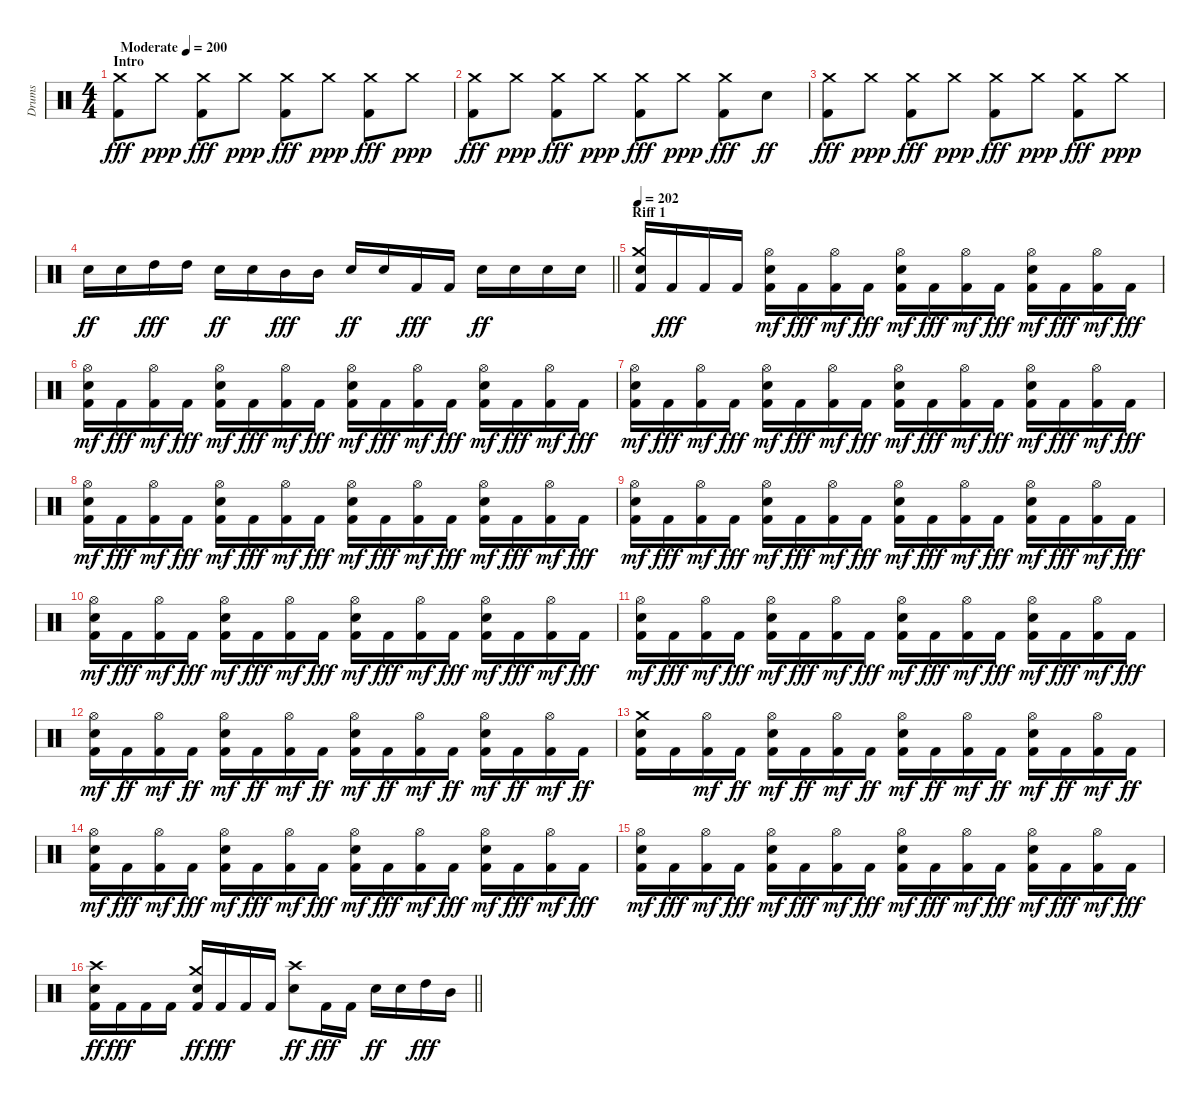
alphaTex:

\track ("Drums" "Drums") {instrument percussion}
\staff {score}
\articulation defaults
\ts (4 4)
\section ("" "Intro")
\tempo (200 "Moderate")
\clef neutral
\ks c
("Kick (hit) 2" "Crash medium (hit)").8{dy fff} "Crash medium (hit)".8{dy ppp} ("Kick (hit) 2" "Crash medium (hit)").8{dy fff} "Crash medium (hit)".8{dy ppp} ("Kick (hit) 2" "Crash medium (hit)").8{dy fff} "Crash medium (hit)".8{dy ppp} ("Kick (hit) 2" "Crash medium (hit)").8{dy fff} "Crash medium (hit)".8{dy ppp} |
("Kick (hit) 2" "Crash medium (hit)").8{dy fff} "Crash medium (hit)".8{dy ppp} ("Kick (hit) 2" "Crash medium (hit)").8{dy fff} "Crash medium (hit)".8{dy ppp} ("Kick (hit) 2" "Crash medium (hit)").8{dy fff} "Crash medium (hit)".8{dy ppp} ("Kick (hit) 2" "Crash medium (hit)").8{dy fff} "Snare (hit) 2".8{dy ff} |
("Kick (hit) 2" "Crash medium (hit)").8{dy fff} "Crash medium (hit)".8{dy ppp} ("Kick (hit) 2" "Crash medium (hit)").8{dy fff} "Crash medium (hit)".8{dy ppp} ("Kick (hit) 2" "Crash medium (hit)").8{dy fff} "Crash medium (hit)".8{dy ppp} ("Kick (hit) 2" "Crash medium (hit)").8{dy fff} "Crash medium (hit)".8{dy ppp} |
\barLineRight lightlight "Snare (hit) 2".16{dy ff} "Snare (hit) 2".16 "High Tom (hit)".16{dy fff} "High Tom (hit)".16 "Snare (hit) 2".16{dy ff} "Snare (hit) 2".16 "Mid Tom (hit)".16{dy fff} "Mid Tom (hit)".16 "Snare (hit) 2".16{dy ff} "Snare (hit) 2".16 "Kick (hit) 2".16{dy fff} "Kick (hit) 2".16 "Snare (hit) 2".16{dy ff} "Snare (hit) 2".16 "Snare (hit) 2".16 "Snare (hit) 2".16
|
\section ("" "Riff 1")
\tempo 202
("Kick (hit) 2" "Snare (hit) 2" "Crash medium (hit)").16 "Kick (hit) 2".16{dy fff} "Kick (hit) 2".16 "Kick (hit) 2".16 ("Kick (hit) 2" "Snare (hit) 2" "Hi-Hat (open)").16{dy mf} "Kick (hit) 2".16{dy fff} ("Kick (hit) 2" "Hi-Hat (open)").16{dy mf} "Kick (hit) 2".16{dy fff} ("Kick (hit) 2" "Snare (hit) 2" "Hi-Hat (open)").16{dy mf} "Kick (hit) 2".16{dy fff} ("Kick (hit) 2" "Hi-Hat (open)").16{dy mf} "Kick (hit) 2".16{dy fff} ("Kick (hit) 2" "Snare (hit) 2" "Hi-Hat (open)").16{dy mf} "Kick (hit) 2".16{dy fff} ("Kick (hit) 2" "Hi-Hat (open)").16{dy mf} "Kick (hit) 2".16{dy fff} |
("Kick (hit) 2" "Snare (hit) 2" "Hi-Hat (open)").16{dy mf} "Kick (hit) 2".16{dy fff} ("Kick (hit) 2" "Hi-Hat (open)").16{dy mf} "Kick (hit) 2".16{dy fff} ("Kick (hit) 2" "Snare (hit) 2" "Hi-Hat (open)").16{dy mf} "Kick (hit) 2".16{dy fff} ("Kick (hit) 2" "Hi-Hat (open)").16{dy mf} "Kick (hit) 2".16{dy fff} ("Kick (hit) 2" "Snare (hit) 2" "Hi-Hat (open)").16{dy mf} "Kick (hit) 2".16{dy fff} ("Kick (hit) 2" "Hi-Hat (open)").16{dy mf} "Kick (hit) 2".16{dy fff} ("Kick (hit) 2" "Snare (hit) 2" "Hi-Hat (open)").16{dy mf} "Kick (hit) 2".16{dy fff} ("Kick (hit) 2" "Hi-Hat (open)").16{dy mf} "Kick (hit) 2".16{dy fff} |
("Kick (hit) 2" "Snare (hit) 2" "Hi-Hat (open)").16{dy mf} "Kick (hit) 2".16{dy fff} ("Kick (hit) 2" "Hi-Hat (open)").16{dy mf} "Kick (hit) 2".16{dy fff} ("Kick (hit) 2" "Snare (hit) 2" "Hi-Hat (open)").16{dy mf} "Kick (hit) 2".16{dy fff} ("Kick (hit) 2" "Hi-Hat (open)").16{dy mf} "Kick (hit) 2".16{dy fff} ("Kick (hit) 2" "Snare (hit) 2" "Hi-Hat (open)").16{dy mf} "Kick (hit) 2".16{dy fff} ("Kick (hit) 2" "Hi-Hat (open)").16{dy mf} "Kick (hit) 2".16{dy fff} ("Kick (hit) 2" "Snare (hit) 2" "Hi-Hat (open)").16{dy mf} "Kick (hit) 2".16{dy fff} ("Kick (hit) 2" "Hi-Hat (open)").16{dy mf} "Kick (hit) 2".16{dy fff} |
("Kick (hit) 2" "Snare (hit) 2" "Hi-Hat (open)").16{dy mf} "Kick (hit) 2".16{dy fff} ("Kick (hit) 2" "Hi-Hat (open)").16{dy mf} "Kick (hit) 2".16{dy fff} ("Kick (hit) 2" "Snare (hit) 2" "Hi-Hat (open)").16{dy mf} "Kick (hit) 2".16{dy fff} ("Kick (hit) 2" "Hi-Hat (open)").16{dy mf} "Kick (hit) 2".16{dy fff} ("Kick (hit) 2" "Snare (hit) 2" "Hi-Hat (open)").16{dy mf} "Kick (hit) 2".16{dy fff} ("Kick (hit) 2" "Hi-Hat (open)").16{dy mf} "Kick (hit) 2".16{dy fff} ("Kick (hit) 2" "Snare (hit) 2" "Hi-Hat (open)").16{dy mf} "Kick (hit) 2".16{dy fff} ("Kick (hit) 2" "Hi-Hat (open)").16{dy mf} "Kick (hit) 2".16{dy fff} |
("Kick (hit) 2" "Snare (hit) 2" "Hi-Hat (open)").16{dy mf} "Kick (hit) 2".16{dy fff} ("Kick (hit) 2" "Hi-Hat (open)").16{dy mf} "Kick (hit) 2".16{dy fff} ("Kick (hit) 2" "Snare (hit) 2" "Hi-Hat (open)").16{dy mf} "Kick (hit) 2".16{dy fff} ("Kick (hit) 2" "Hi-Hat (open)").16{dy mf} "Kick (hit) 2".16{dy fff} ("Kick (hit) 2" "Snare (hit) 2" "Hi-Hat (open)").16{dy mf} "Kick (hit) 2".16{dy fff} ("Kick (hit) 2" "Hi-Hat (open)").16{dy mf} "Kick (hit) 2".16{dy fff} ("Kick (hit) 2" "Snare (hit) 2" "Hi-Hat (open)").16{dy mf} "Kick (hit) 2".16{dy fff} ("Kick (hit) 2" "Hi-Hat (open)").16{dy mf} "Kick (hit) 2".16{dy fff} |
("Kick (hit) 2" "Snare (hit) 2" "Hi-Hat (open)").16{dy mf} "Kick (hit) 2".16{dy fff} ("Kick (hit) 2" "Hi-Hat (open)").16{dy mf} "Kick (hit) 2".16{dy fff} ("Kick (hit) 2" "Snare (hit) 2" "Hi-Hat (open)").16{dy mf} "Kick (hit) 2".16{dy fff} ("Kick (hit) 2" "Hi-Hat (open)").16{dy mf} "Kick (hit) 2".16{dy fff} ("Kick (hit) 2" "Snare (hit) 2" "Hi-Hat (open)").16{dy mf} "Kick (hit) 2".16{dy fff} ("Kick (hit) 2" "Hi-Hat (open)").16{dy mf} "Kick (hit) 2".16{dy fff} ("Kick (hit) 2" "Snare (hit) 2" "Hi-Hat (open)").16{dy mf} "Kick (hit) 2".16{dy fff} ("Kick (hit) 2" "Hi-Hat (open)").16{dy mf} "Kick (hit) 2".16{dy fff} |
("Kick (hit) 2" "Snare (hit) 2" "Hi-Hat (open)").16{dy mf} "Kick (hit) 2".16{dy fff} ("Kick (hit) 2" "Hi-Hat (open)").16{dy mf} "Kick (hit) 2".16{dy fff} ("Kick (hit) 2" "Snare (hit) 2" "Hi-Hat (open)").16{dy mf} "Kick (hit) 2".16{dy fff} ("Kick (hit) 2" "Hi-Hat (open)").16{dy mf} "Kick (hit) 2".16{dy fff} ("Kick (hit) 2" "Snare (hit) 2" "Hi-Hat (open)").16{dy mf} "Kick (hit) 2".16{dy fff} ("Kick (hit) 2" "Hi-Hat (open)").16{dy mf} "Kick (hit) 2".16{dy fff} ("Kick (hit) 2" "Snare (hit) 2" "Hi-Hat (open)").16{dy mf} "Kick (hit) 2".16{dy fff} ("Kick (hit) 2" "Hi-Hat (open)").16{dy mf} "Kick (hit) 2".16{dy fff} |
("Kick (hit) 2" "Snare (hit) 2" "Hi-Hat (open)").16{dy mf} "Kick (hit) 2".16{dy ff} ("Kick (hit) 2" "Hi-Hat (open)").16{dy mf} "Kick (hit) 2".16{dy ff} ("Kick (hit) 2" "Snare (hit) 2" "Hi-Hat (open)").16{dy mf} "Kick (hit) 2".16{dy ff} ("Kick (hit) 2" "Hi-Hat (open)").16{dy mf} "Kick (hit) 2".16{dy ff} ("Kick (hit) 2" "Snare (hit) 2" "Hi-Hat (open)").16{dy mf} "Kick (hit) 2".16{dy ff} ("Kick (hit) 2" "Hi-Hat (open)").16{dy mf} "Kick (hit) 2".16{dy ff} ("Kick (hit) 2" "Snare (hit) 2" "Hi-Hat (open)").16{dy mf} "Kick (hit) 2".16{dy ff} ("Kick (hit) 2" "Hi-Hat (open)").16{dy mf} "Kick (hit) 2".16{dy ff} |
("Kick (hit) 2" "Snare (hit) 2" "Crash medium (hit)").16 "Kick (hit) 2".16 ("Kick (hit) 2" "Hi-Hat (open)").16{dy mf} "Kick (hit) 2".16{dy ff} ("Kick (hit) 2" "Snare (hit) 2" "Hi-Hat (open)").16{dy mf} "Kick (hit) 2".16{dy ff} ("Kick (hit) 2" "Hi-Hat (open)").16{dy mf} "Kick (hit) 2".16{dy ff} ("Kick (hit) 2" "Snare (hit) 2" "Hi-Hat (open)").16{dy mf} "Kick (hit) 2".16{dy ff} ("Kick (hit) 2" "Hi-Hat (open)").16{dy mf} "Kick (hit) 2".16{dy ff} ("Kick (hit) 2" "Snare (hit) 2" "Hi-Hat (open)").16{dy mf} "Kick (hit) 2".16{dy ff} ("Kick (hit) 2" "Hi-Hat (open)").16{dy mf} "Kick (hit) 2".16{dy ff} |
("Kick (hit) 2" "Snare (hit) 2" "Hi-Hat (open)").16{dy mf} "Kick (hit) 2".16{dy fff} ("Kick (hit) 2" "Hi-Hat (open)").16{dy mf} "Kick (hit) 2".16{dy fff} ("Kick (hit) 2" "Snare (hit) 2" "Hi-Hat (open)").16{dy mf} "Kick (hit) 2".16{dy fff} ("Kick (hit) 2" "Hi-Hat (open)").16{dy mf} "Kick (hit) 2".16{dy fff} ("Kick (hit) 2" "Snare (hit) 2" "Hi-Hat (open)").16{dy mf} "Kick (hit) 2".16{dy fff} ("Kick (hit) 2" "Hi-Hat (open)").16{dy mf} "Kick (hit) 2".16{dy fff} ("Kick (hit) 2" "Snare (hit) 2" "Hi-Hat (open)").16{dy mf} "Kick (hit) 2".16{dy fff} ("Kick (hit) 2" "Hi-Hat (open)").16{dy mf} "Kick (hit) 2".16{dy fff} |
("Kick (hit) 2" "Snare (hit) 2" "Hi-Hat (open)").16{dy mf} "Kick (hit) 2".16{dy fff} ("Kick (hit) 2" "Hi-Hat (open)").16{dy mf} "Kick (hit) 2".16{dy fff} ("Kick (hit) 2" "Snare (hit) 2" "Hi-Hat (open)").16{dy mf} "Kick (hit) 2".16{dy fff} ("Kick (hit) 2" "Hi-Hat (open)").16{dy mf} "Kick (hit) 2".16{dy fff} ("Kick (hit) 2" "Snare (hit) 2" "Hi-Hat (open)").16{dy mf} "Kick (hit) 2".16{dy fff} ("Kick (hit) 2" "Hi-Hat (open)").16{dy mf} "Kick (hit) 2".16{dy fff} ("Kick (hit) 2" "Snare (hit) 2" "Hi-Hat (open)").16{dy mf} "Kick (hit) 2".16{dy fff} ("Kick (hit) 2" "Hi-Hat (open)").16{dy mf} "Kick (hit) 2".16{dy fff} |
\barLineRight lightlight
("Kick (hit) 2" "Snare (hit) 2" "Crash high (hit)").16{dy ff} "Kick (hit) 2".16{dy fff} "Kick (hit) 2".16 "Kick (hit) 2".16 ("Kick (hit) 2" "Snare (hit) 2" "Crash medium (hit)").16{dy ff} "Kick (hit) 2".16{dy fff} "Kick (hit) 2".16 "Kick (hit) 2".16 ("Snare (hit) 2" "Crash high (hit)").8{dy ff} "Kick (hit) 2".16{dy fff} "Kick (hit) 2".16 "Snare (hit) 2".16{dy ff} "Snare (hit) 2".16 "High Tom (hit)".16{dy fff} "Mid Tom (hit)".16
